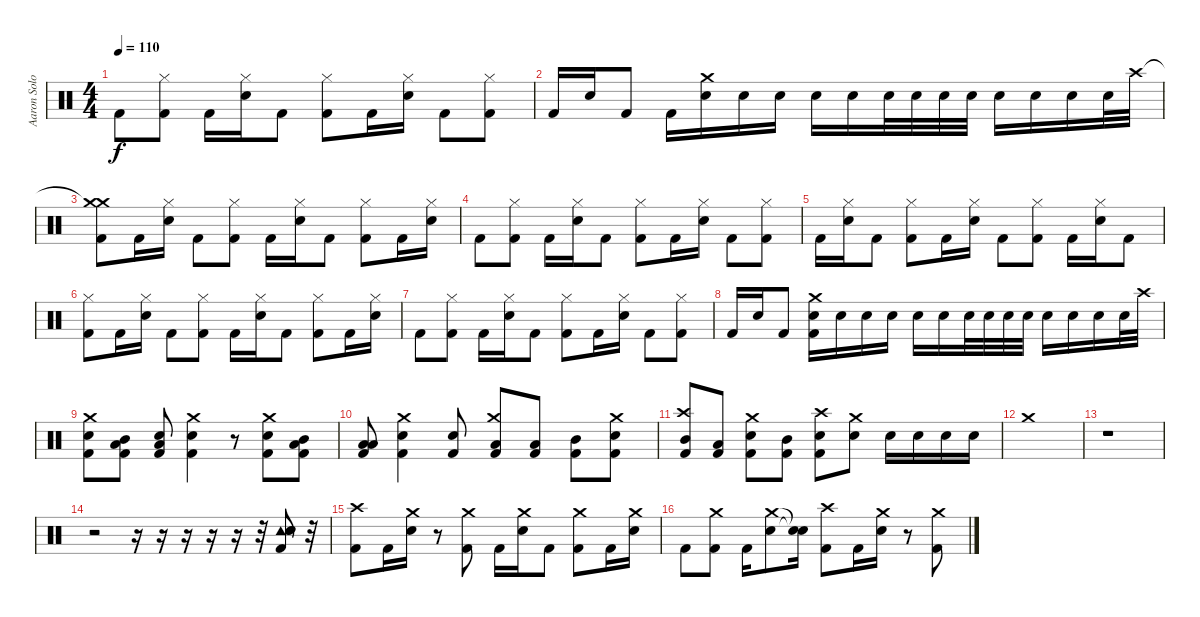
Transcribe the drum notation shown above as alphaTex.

\track ("Aaron Solowoniuk - Drum" "Aaron Solo") {instrument percussion}
\staff {score}
\articulation defaults
\ts (4 4)
\tempo 110
\clef neutral
\ks c "Kick (hit) 2".8{dy f}
("Hi-Hat (closed)" "Kick (hit) 2").8 "Kick (hit) 2".16 ("Hi-Hat (closed)" "Electric Snare (hit)").16 "Kick (hit) 2".8 ("Hi-Hat (closed)" "Kick (hit) 2").8 "Kick (hit) 2".16 ("Hi-Hat (closed)" "Electric Snare (hit)").16 "Kick (hit) 2".8 ("Hi-Hat (closed)" "Kick (hit) 2").8 |
"Kick (hit) 2".16 "Electric Snare (hit)".16 "Kick (hit) 2".8 "Kick (hit) 2".16 ("Crash medium (hit)" "Electric Snare (hit)").16 "Electric Snare (hit)".16 "Electric Snare (hit)".16 "Electric Snare (hit)".16 "Electric Snare (hit)".16 "Electric Snare (hit)".32 "Electric Snare (hit)".32 "Electric Snare (hit)".32 "Electric Snare (hit)".32 "Electric Snare (hit)".16 "Electric Snare (hit)".16 "Electric Snare (hit)".16 "Electric Snare (hit)".32 "Crash high (hit)".32 |
("Crash medium (hit)"{t} "Crash medium (hit)" "Kick (hit) 2").8 "Kick (hit) 2".16 ("Hi-Hat (closed)" "Electric Snare (hit)").16 "Kick (hit) 2".8 ("Hi-Hat (closed)" "Kick (hit) 2").8 "Kick (hit) 2".16 ("Hi-Hat (closed)" "Electric Snare (hit)").16 "Kick (hit) 2".8 ("Hi-Hat (closed)" "Kick (hit) 2").8 "Kick (hit) 2".16 ("Hi-Hat (closed)" "Electric Snare (hit)").16 |
"Kick (hit) 2".8 ("Hi-Hat (closed)" "Kick (hit) 2").8 "Kick (hit) 2".16 ("Hi-Hat (closed)" "Electric Snare (hit)").16 "Kick (hit) 2".8 ("Hi-Hat (closed)" "Kick (hit) 2").8 "Kick (hit) 2".16 ("Hi-Hat (closed)" "Electric Snare (hit)").16 "Kick (hit) 2".8 ("Hi-Hat (closed)" "Kick (hit) 2").8 |
"Kick (hit) 2".16 ("Hi-Hat (closed)" "Electric Snare (hit)").16 "Kick (hit) 2".8 ("Hi-Hat (closed)" "Kick (hit) 2").8 "Kick (hit) 2".16 ("Hi-Hat (closed)" "Electric Snare (hit)").16 "Kick (hit) 2".8 ("Hi-Hat (closed)" "Kick (hit) 2").8 "Kick (hit) 2".16 ("Hi-Hat (closed)" "Electric Snare (hit)").16 "Kick (hit) 2".8 |
("Hi-Hat (closed)" "Kick (hit) 2").8 "Kick (hit) 2".16 ("Hi-Hat (closed)" "Electric Snare (hit)").16 "Kick (hit) 2".8 ("Hi-Hat (closed)" "Kick (hit) 2").8 "Kick (hit) 2".16 ("Hi-Hat (closed)" "Electric Snare (hit)").16 "Kick (hit) 2".8 ("Hi-Hat (closed)" "Kick (hit) 2").8 "Kick (hit) 2".16 ("Hi-Hat (closed)" "Electric Snare (hit)").16 |
"Kick (hit) 2".8 ("Hi-Hat (closed)" "Kick (hit) 2").8 "Kick (hit) 2".16 ("Hi-Hat (closed)" "Electric Snare (hit)").16 "Kick (hit) 2".8 ("Hi-Hat (closed)" "Kick (hit) 2").8 "Kick (hit) 2".16 ("Hi-Hat (closed)" "Electric Snare (hit)").16 "Kick (hit) 2".8 ("Hi-Hat (closed)" "Kick (hit) 2").8 |
"Kick (hit) 2".16 "Electric Snare (hit)".16 "Kick (hit) 2".8 ("Crash medium (hit)" "Electric Snare (hit)" "Kick (hit) 2").16 "Electric Snare (hit)".16 "Electric Snare (hit)".16 "Electric Snare (hit)".16 "Electric Snare (hit)".16 "Electric Snare (hit)".16 "Electric Snare (hit)".32 "Electric Snare (hit)".32 "Electric Snare (hit)".32 "Electric Snare (hit)".32 "Electric Snare (hit)".16 "Electric Snare (hit)".16 "Electric Snare (hit)".16 "Electric Snare (hit)".32 "Crash high (hit)".32 |
("Crash medium (hit)" "Electric Snare (hit)" "Kick (hit) 2").8 ("Mid Tom (hit)" "Low Tom (hit)" "Kick (hit) 2").8 ("Low Tom (hit)" "Electric Snare (hit)" "Kick (hit) 2").8 ("Crash medium (hit)" "Electric Snare (hit)" "Kick (hit) 2").4 r.8 ("Crash medium (hit)" "Electric Snare (hit)" "Kick (hit) 2").8 ("Mid Tom (hit)" "Low Tom (hit)" "Kick (hit) 2").8 |
("Low Tom (hit)" "Low Tom (hit)" "Kick (hit) 2").8 ("Crash medium (hit)" "Electric Snare (hit)" "Kick (hit) 2").4 ("Electric Snare (hit)" "Kick (hit) 2").8 ("Crash medium (hit)" "Low Tom (hit)" "Kick (hit) 2").8 ("Low Tom (hit)" "Kick (hit) 2").8 ("Mid Tom (hit)" "Kick (hit) 2").8 ("Crash medium (hit)" "Electric Snare (hit)" "Kick (hit) 2").8 |
("Crash high (hit)" "Mid Tom (hit)" "Kick (hit) 2").8 ("Low Tom (hit)" "Kick (hit) 2").8 ("Crash medium (hit)" "Electric Snare (hit)" "Kick (hit) 2").8 ("Mid Tom (hit)" "Kick (hit) 2").8 ("Crash high (hit)" "Electric Snare (hit)" "Kick (hit) 2").8 ("Crash medium (hit)" "Electric Snare (hit)").8 "Electric Snare (hit)".16 "Electric Snare (hit)".16 "Electric Snare (hit)".16 "Electric Snare (hit)".16 |
"Crash medium (hit)".1 |
r.1 |
r.2 r.16 r.16 r.16 r.16 r.16 r.32 ("Tambourine (hit)" "Electric Snare (hit)" "Electric Snare (hit)" "Kick (hit) 2").8 r.32 |
("Crash high (hit)" "Kick (hit) 2").8 "Kick (hit) 2".16 ("Crash medium (hit)" "Electric Snare (hit)").16 r.8 ("Crash medium (hit)" "Kick (hit) 2").8 "Kick (hit) 2".16 ("Crash medium (hit)" "Electric Snare (hit)").16 "Kick (hit) 2".8 ("Crash medium (hit)" "Kick (hit) 2").8 "Kick (hit) 2".16 ("Crash medium (hit)" "Electric Snare (hit)").16 |
"Kick (hit) 2".8 ("Crash medium (hit)" "Kick (hit) 2").8 "Kick (hit) 2".16 ("Crash medium (hit)" "Electric Snare (hit)").8 ("Snare (hit)"{t} "Snare (hit)"{t}).16 ("Crash high (hit)" "Kick (hit) 2").8 "Kick (hit) 2".16 ("Crash medium (hit)" "Electric Snare (hit)").16 r.8 ("Crash medium (hit)" "Kick (hit) 2").8
